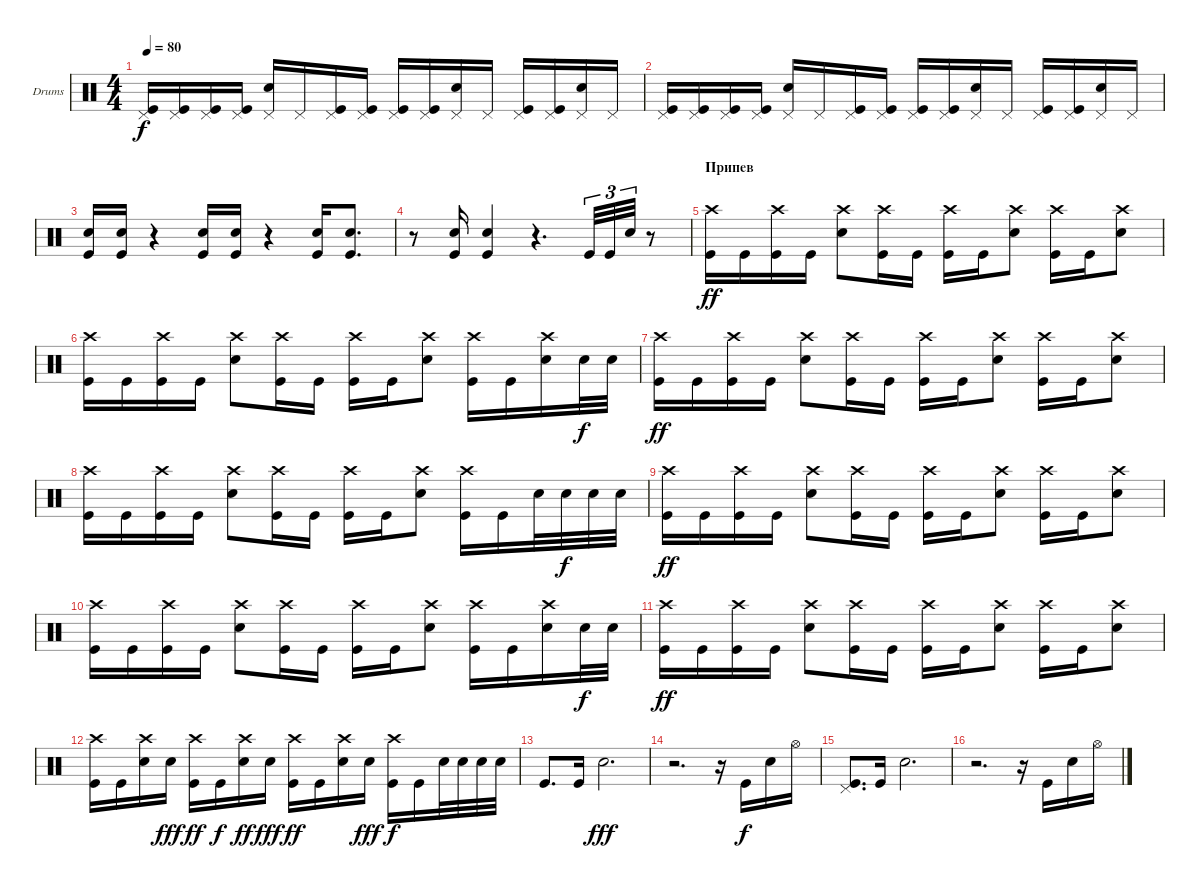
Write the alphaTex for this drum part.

\defaultSystemsLayout 4
\bracketExtendMode groupsimilarinstruments
\firstSystemTrackNameOrientation horizontal
\otherSystemsTrackNameOrientation horizontal
\track ("Drumkit" "Drums") {mute instrument percussion}
\staff {score}
\articulation defaults
\ts (4 4)
\tempo 80
\clef neutral
\ks c
("Pedal Hi-Hat (hit)" "Kick (hit)").16{dy f} ("Pedal Hi-Hat (hit)" "Kick (hit)").16 ("Pedal Hi-Hat (hit)" "Kick (hit)").16 ("Pedal Hi-Hat (hit)" "Kick (hit)").16 ("Pedal Hi-Hat (hit)" "Snare (hit) 2").16 "Pedal Hi-Hat (hit)".16 ("Pedal Hi-Hat (hit)" "Kick (hit)").16 ("Pedal Hi-Hat (hit)" "Kick (hit)").16 ("Pedal Hi-Hat (hit)" "Kick (hit)").16 ("Pedal Hi-Hat (hit)" "Kick (hit)").16 ("Pedal Hi-Hat (hit)" "Snare (hit) 2").16 "Pedal Hi-Hat (hit)".16 ("Pedal Hi-Hat (hit)" "Kick (hit)").16 ("Pedal Hi-Hat (hit)" "Kick (hit)").16 ("Pedal Hi-Hat (hit)" "Snare (hit) 2").16 "Pedal Hi-Hat (hit)".16 |
("Pedal Hi-Hat (hit)" "Kick (hit)").16 ("Pedal Hi-Hat (hit)" "Kick (hit)").16 ("Pedal Hi-Hat (hit)" "Kick (hit)").16 ("Pedal Hi-Hat (hit)" "Kick (hit)").16 ("Pedal Hi-Hat (hit)" "Snare (hit) 2").16 "Pedal Hi-Hat (hit)".16 ("Pedal Hi-Hat (hit)" "Kick (hit)").16 ("Pedal Hi-Hat (hit)" "Kick (hit)").16 ("Pedal Hi-Hat (hit)" "Kick (hit)").16 ("Pedal Hi-Hat (hit)" "Kick (hit)").16 ("Pedal Hi-Hat (hit)" "Snare (hit) 2").16 "Pedal Hi-Hat (hit)".16 ("Pedal Hi-Hat (hit)" "Kick (hit)").16 ("Pedal Hi-Hat (hit)" "Kick (hit)").16 ("Pedal Hi-Hat (hit)" "Snare (hit) 2").16 "Pedal Hi-Hat (hit)".16 |
("Snare (hit) 2" "Kick (hit)").16 ("Snare (hit) 2" "Kick (hit)").16 r.4 ("Snare (hit) 2" "Kick (hit)").16 ("Snare (hit) 2" "Kick (hit)").16 r.4 ("Snare (hit) 2" "Kick (hit)").16 ("Snare (hit) 2" "Kick (hit)").8{d} |
r.8 ("Snare (hit) 2" "Kick (hit)").16 ("Snare (hit) 2" "Kick (hit)").4 r.4{d} "Kick (hit)".32{tu (3 2)} "Kick (hit)".32{tu (3 2)} "Snare (hit) 2".32{tu (3 2)} r.8 |
\section ("" "Припев")
("Crash high (hit)" "Kick (hit)").16{dy ff} "Kick (hit)".16 ("Crash high (hit)" "Kick (hit)").16 "Kick (hit)".16 ("Crash high (hit)" "Snare (hit) 2").8 ("Crash high (hit)" "Kick (hit)").16 "Kick (hit)".16 ("Crash high (hit)" "Kick (hit)").16 "Kick (hit)".16 ("Crash high (hit)" "Snare (hit) 2").8 ("Crash high (hit)" "Kick (hit)").16 "Kick (hit)".16 ("Crash high (hit)" "Snare (hit) 2").8 |
("Crash high (hit)" "Kick (hit)").16 "Kick (hit)".16 ("Crash high (hit)" "Kick (hit)").16 "Kick (hit)".16 ("Crash high (hit)" "Snare (hit) 2").8 ("Crash high (hit)" "Kick (hit)").16 "Kick (hit)".16 ("Crash high (hit)" "Kick (hit)").16 "Kick (hit)".16 ("Crash high (hit)" "Snare (hit) 2").8 ("Crash high (hit)" "Kick (hit)").16 "Kick (hit)".16 ("Crash high (hit)" "Snare (hit) 2").16 "Snare (hit) 2".32{dy f} "Snare (hit) 2".32 |
("Crash high (hit)" "Kick (hit)").16{dy ff} "Kick (hit)".16 ("Crash high (hit)" "Kick (hit)").16 "Kick (hit)".16 ("Crash high (hit)" "Snare (hit) 2").8 ("Crash high (hit)" "Kick (hit)").16 "Kick (hit)".16 ("Crash high (hit)" "Kick (hit)").16 "Kick (hit)".16 ("Crash high (hit)" "Snare (hit) 2").8 ("Crash high (hit)" "Kick (hit)").16 "Kick (hit)".16 ("Crash high (hit)" "Snare (hit) 2").8 |
("Crash high (hit)" "Kick (hit)").16 "Kick (hit)".16 ("Crash high (hit)" "Kick (hit)").16 "Kick (hit)".16 ("Crash high (hit)" "Snare (hit) 2").8 ("Crash high (hit)" "Kick (hit)").16 "Kick (hit)".16 ("Crash high (hit)" "Kick (hit)").16 "Kick (hit)".16 ("Crash high (hit)" "Snare (hit) 2").8 ("Crash high (hit)" "Kick (hit)").16 "Kick (hit)".16 "Snare (hit) 2".32 "Snare (hit) 2".32{dy f} "Snare (hit) 2".32 "Snare (hit) 2".32 |
("Crash high (hit)" "Kick (hit)").16{dy ff} "Kick (hit)".16 ("Crash high (hit)" "Kick (hit)").16 "Kick (hit)".16 ("Crash high (hit)" "Snare (hit) 2").8 ("Crash high (hit)" "Kick (hit)").16 "Kick (hit)".16 ("Crash high (hit)" "Kick (hit)").16 "Kick (hit)".16 ("Crash high (hit)" "Snare (hit) 2").8 ("Crash high (hit)" "Kick (hit)").16 "Kick (hit)".16 ("Crash high (hit)" "Snare (hit) 2").8 |
("Crash high (hit)" "Kick (hit)").16 "Kick (hit)".16 ("Crash high (hit)" "Kick (hit)").16 "Kick (hit)".16 ("Crash high (hit)" "Snare (hit) 2").8 ("Crash high (hit)" "Kick (hit)").16 "Kick (hit)".16 ("Crash high (hit)" "Kick (hit)").16 "Kick (hit)".16 ("Crash high (hit)" "Snare (hit) 2").8 ("Crash high (hit)" "Kick (hit)").16 "Kick (hit)".16 ("Crash high (hit)" "Snare (hit) 2").16 "Snare (hit) 2".32{dy f} "Snare (hit) 2".32 |
("Crash high (hit)" "Kick (hit)").16{dy ff} "Kick (hit)".16 ("Crash high (hit)" "Kick (hit)").16 "Kick (hit)".16 ("Crash high (hit)" "Snare (hit) 2").8 ("Crash high (hit)" "Kick (hit)").16 "Kick (hit)".16 ("Crash high (hit)" "Kick (hit)").16 "Kick (hit)".16 ("Crash high (hit)" "Snare (hit) 2").8 ("Crash high (hit)" "Kick (hit)").16 "Kick (hit)".16 ("Crash high (hit)" "Snare (hit) 2").8 |
("Crash high (hit)" "Kick (hit)").16 "Kick (hit)".16 ("Crash high (hit)" "Snare (hit) 2").16 "Snare (hit) 2".16{dy fff} ("Crash high (hit)" "Kick (hit)").16{dy ff} "Kick (hit)".16{dy f} ("Crash high (hit)" "Snare (hit) 2").16{dy ff} "Snare (hit) 2".16{dy fff} ("Crash high (hit)" "Kick (hit)").16{dy ff} "Kick (hit)".16 ("Crash high (hit)" "Snare (hit) 2").16 "Snare (hit) 2".16{dy fff} ("Crash high (hit)" "Kick (hit)").16{dy f} "Kick (hit)".16 "Snare (hit) 2".32 "Snare (hit) 2".32 "Snare (hit) 2".32 "Snare (hit) 2".32 |
"Kick (hit)".8{d} "Kick (hit)".16 "Snare (hit) 2".2{d dy fff} |
r.2{d} r.16 "Kick (hit)".16{dy f} "Snare (hit) 2".16 "Hi-Hat (open)".16 |
("Pedal Hi-Hat (hit)" "Kick (hit)").8{d} "Kick (hit)".16 "Snare (hit) 2".2{d} |
r.2{d} r.16 "Kick (hit)".16 "Snare (hit) 2".16 "Hi-Hat (open)".16
